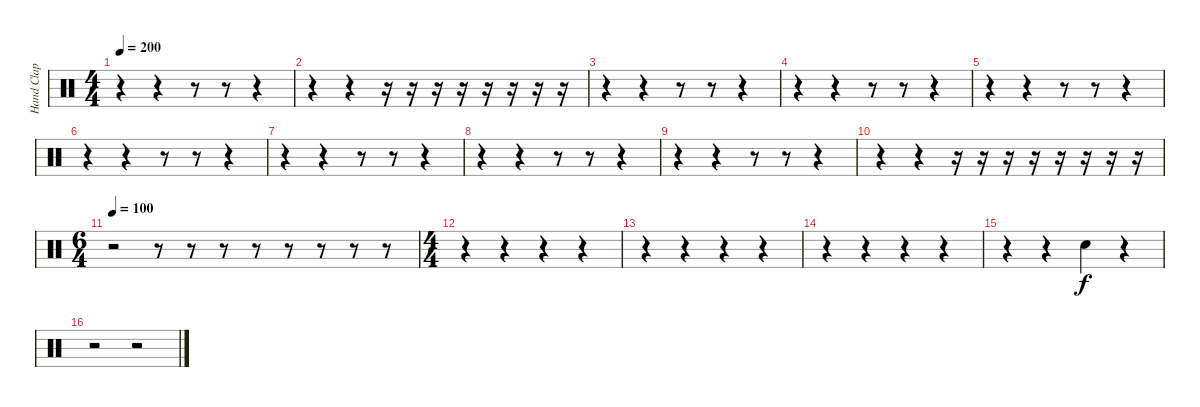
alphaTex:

\track ("Hand Clap" "Hand Clap") {instrument percussion}
\staff {score}
\articulation defaults
\ts (4 4)
\tempo 200
\clef neutral
\ks c
r.4{dy f} r.4 r.8 r.8 r.4 |
r.4 r.4 r.16 r.16 r.16 r.16 r.16 r.16 r.16 r.16 |
r.4 r.4 r.8 r.8 r.4 |
r.4 r.4 r.8 r.8 r.4 |
r.4 r.4 r.8 r.8 r.4 |
r.4 r.4 r.8 r.8 r.4 |
r.4 r.4 r.8 r.8 r.4 |
r.4 r.4 r.8 r.8 r.4 |
r.4 r.4 r.8 r.8 r.4 |
r.4 r.4 r.16 r.16 r.16 r.16 r.16 r.16 r.16 r.16 |
\ts (6 4)
\tempo 100
r.2 r.8 r.8 r.8 r.8 r.8 r.8 r.8 r.8 |
\ts (4 4)
r.4 r.4 r.4 r.4 |
r.4 r.4 r.4 r.4 |
r.4 r.4 r.4 r.4 |
r.4 r.4 "Hand Clap (hit)".4 r.4 |
r.2 r.2
